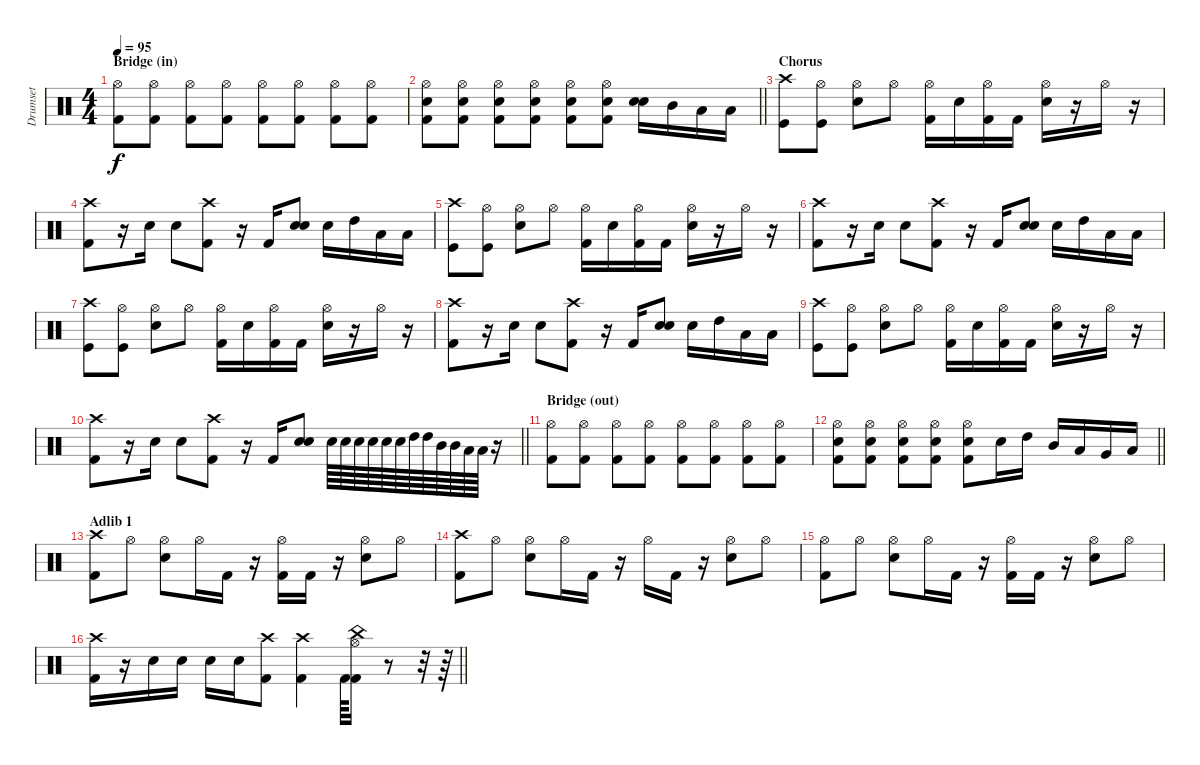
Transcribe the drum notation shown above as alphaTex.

\track ("Drumset" "Drumset") {solo instrument percussion}
\staff {score}
\articulation defaults
\ts (4 4)
\section ("" "Bridge (in)")
\tempo 95
\clef neutral
\ks c
("Hi-Hat (open)" "Kick (hit) 2").8{dy f} ("Hi-Hat (open)" "Kick (hit) 2").8 ("Hi-Hat (open)" "Kick (hit) 2").8 ("Hi-Hat (open)" "Kick (hit) 2").8 ("Hi-Hat (open)" "Kick (hit) 2").8 ("Hi-Hat (open)" "Kick (hit) 2").8 ("Hi-Hat (open)" "Kick (hit) 2").8 ("Hi-Hat (open)" "Kick (hit) 2").8 |
\barLineRight lightlight
("Hi-Hat (open)" "Snare (hit) 2" "Kick (hit) 2").8 ("Hi-Hat (open)" "Snare (hit) 2" "Kick (hit) 2").8 ("Hi-Hat (open)" "Snare (hit) 2" "Kick (hit) 2").8 ("Hi-Hat (open)" "Snare (hit) 2" "Kick (hit) 2").8 ("Hi-Hat (open)" "Snare (hit) 2" "Kick (hit) 2").8 ("Hi-Hat (open)" "Snare (hit) 2" "Kick (hit) 2").8 ("Snare (hit) 2" "Snare (hit) 2").16 "Mid Tom (hit)".16 "Low Tom (hit)".16 "Low Floor Tom (hit)".16 |
\section ("" "Chorus")
("Crash high (hit)" "Kick (hit)").8 ("Hi-Hat (open)" "Kick (hit)").8 ("Hi-Hat (open)" "Snare (hit) 2").8 "Hi-Hat (open)".8 ("Hi-Hat (open)" "Kick (hit) 2").16 "Snare (hit) 2".16 ("Hi-Hat (open)" "Kick (hit) 2").16 "Kick (hit) 2".16 ("Hi-Hat (open)" "Snare (hit) 2").16 r.16 "Hi-Hat (open)".16 r.16 |
("Crash high (hit)" "Kick (hit) 2").8 r.16 "Snare (hit) 2".16 "Snare (hit) 2".8 ("Crash high (hit)" "Kick (hit) 2").8 r.16 "Kick (hit) 2".16 ("Snare (hit) 2" "Snare (hit) 2").8 "Snare (hit) 2".16 "High Tom (hit)".16 "Low Tom (hit)".16 "Low Floor Tom (hit)".16 |
("Crash high (hit)" "Kick (hit)").8 ("Hi-Hat (open)" "Kick (hit)").8 ("Hi-Hat (open)" "Snare (hit) 2").8 "Hi-Hat (open)".8 ("Hi-Hat (open)" "Kick (hit) 2").16 "Snare (hit) 2".16 ("Hi-Hat (open)" "Kick (hit) 2").16 "Kick (hit) 2".16 ("Hi-Hat (open)" "Snare (hit) 2").16 r.16 "Hi-Hat (open)".16 r.16 |
("Crash high (hit)" "Kick (hit) 2").8 r.16 "Snare (hit) 2".16 "Snare (hit) 2".8 ("Crash high (hit)" "Kick (hit) 2").8 r.16 "Kick (hit) 2".16 ("Snare (hit) 2" "Snare (hit) 2").8 "Snare (hit) 2".16 "High Tom (hit)".16 "Low Tom (hit)".16 "Low Floor Tom (hit)".16 |
("Crash high (hit)" "Kick (hit)").8 ("Hi-Hat (open)" "Kick (hit)").8 ("Hi-Hat (open)" "Snare (hit) 2").8 "Hi-Hat (open)".8 ("Hi-Hat (open)" "Kick (hit) 2").16 "Snare (hit) 2".16 ("Hi-Hat (open)" "Kick (hit) 2").16 "Kick (hit) 2".16 ("Hi-Hat (open)" "Snare (hit) 2").16 r.16 "Hi-Hat (open)".16 r.16 |
("Crash high (hit)" "Kick (hit) 2").8 r.16 "Snare (hit) 2".16 "Snare (hit) 2".8 ("Crash high (hit)" "Kick (hit) 2").8 r.16 "Kick (hit) 2".16 ("Snare (hit) 2" "Snare (hit) 2").8 "Snare (hit) 2".16 "High Tom (hit)".16 "Low Tom (hit)".16 "Low Floor Tom (hit)".16 |
("Crash high (hit)" "Kick (hit)").8 ("Hi-Hat (open)" "Kick (hit)").8 ("Hi-Hat (open)" "Snare (hit) 2").8 "Hi-Hat (open)".8 ("Hi-Hat (open)" "Kick (hit) 2").16 "Snare (hit) 2".16 ("Hi-Hat (open)" "Kick (hit) 2").16 "Kick (hit) 2".16 ("Hi-Hat (open)" "Snare (hit) 2").16 r.16 "Hi-Hat (open)".16 r.16 |
\barLineRight lightlight
("Crash high (hit)" "Kick (hit) 2").8 r.16 "Snare (hit) 2".16 "Snare (hit) 2".8 ("Crash high (hit)" "Kick (hit) 2").8 r.16 "Kick (hit) 2".16 ("Snare (hit) 2" "Snare (hit) 2").8 "Snare (hit) 2".64 "Snare (hit) 2".64 "Snare (hit) 2".64 "Snare (hit) 2".64 "Snare (hit) 2".64 "Snare (hit) 2".64 "High Tom (hit)".64 "High Tom (hit)".64 "Mid Tom (hit)".64 "Mid Tom (hit)".64 "Low Tom (hit)".64 "Low Tom (hit)".64 r.16 |
\section ("" "Bridge (out)")
("Hi-Hat (open)" "Kick (hit) 2").8 ("Hi-Hat (open)" "Kick (hit) 2").8 ("Hi-Hat (open)" "Kick (hit) 2").8 ("Hi-Hat (open)" "Kick (hit) 2").8 ("Hi-Hat (open)" "Kick (hit) 2").8 ("Hi-Hat (open)" "Kick (hit) 2").8 ("Hi-Hat (open)" "Kick (hit) 2").8 ("Hi-Hat (open)" "Kick (hit) 2").8 |
\barLineRight lightlight
("Hi-Hat (open)" "Snare (hit) 2" "Kick (hit) 2").8 ("Hi-Hat (open)" "Snare (hit) 2" "Kick (hit) 2").8 ("Hi-Hat (open)" "Snare (hit) 2" "Kick (hit) 2").8 ("Hi-Hat (open)" "Snare (hit) 2" "Kick (hit) 2").8 ("Hi-Hat (open)" "Snare (hit) 2" "Kick (hit) 2").8 "Snare (hit) 2".16 "High Tom (hit)".16 "Mid Tom (hit)".16 "Low Tom (hit)".16 "Very Low Tom (hit)".16 "Low Floor Tom (hit)".16 |
\section ("" "Adlib 1")
("Crash high (hit)" "Kick (hit) 2").8 "Hi-Hat (open)".8 ("Hi-Hat (open)" "Snare (hit) 2").8 "Hi-Hat (open)".16 "Kick (hit) 2".16 r.16 ("Hi-Hat (open)" "Kick (hit) 2").16 "Kick (hit) 2".16 r.16 ("Hi-Hat (open)" "Snare (hit) 2").8 "Hi-Hat (open)".8 |
("Crash high (hit)" "Kick (hit) 2").8 "Hi-Hat (open)".8 ("Hi-Hat (open)" "Snare (hit) 2").8 "Hi-Hat (open)".16 "Kick (hit) 2".16 r.16 "Hi-Hat (open)".16 "Kick (hit) 2".16 r.16 ("Hi-Hat (open)" "Snare (hit) 2").8 "Hi-Hat (open)".8 |
("Hi-Hat (open)" "Kick (hit) 2").8 "Hi-Hat (open)".8 ("Hi-Hat (open)" "Snare (hit) 2").8 "Hi-Hat (open)".16 "Kick (hit) 2".16 r.16 ("Hi-Hat (open)" "Kick (hit) 2").16 "Kick (hit) 2".16 r.16 ("Hi-Hat (open)" "Snare (hit) 2").8 "Hi-Hat (open)".8 |
\barLineRight lightlight
("Crash high (hit)" "Kick (hit) 2").16 r.16 "Snare (hit) 2".16 "Snare (hit) 2".16 "Snare (hit) 2".16 "Snare (hit) 2".16 ("Crash high (hit)" "Kick (hit) 2").8 ("Crash high (hit)" "Kick (hit) 2").4 "Kick (hit) 2".64 ("Hi-Hat (open)" "China (hit)" "Kick (hit) 2").16 r.8 r.32 r.64
